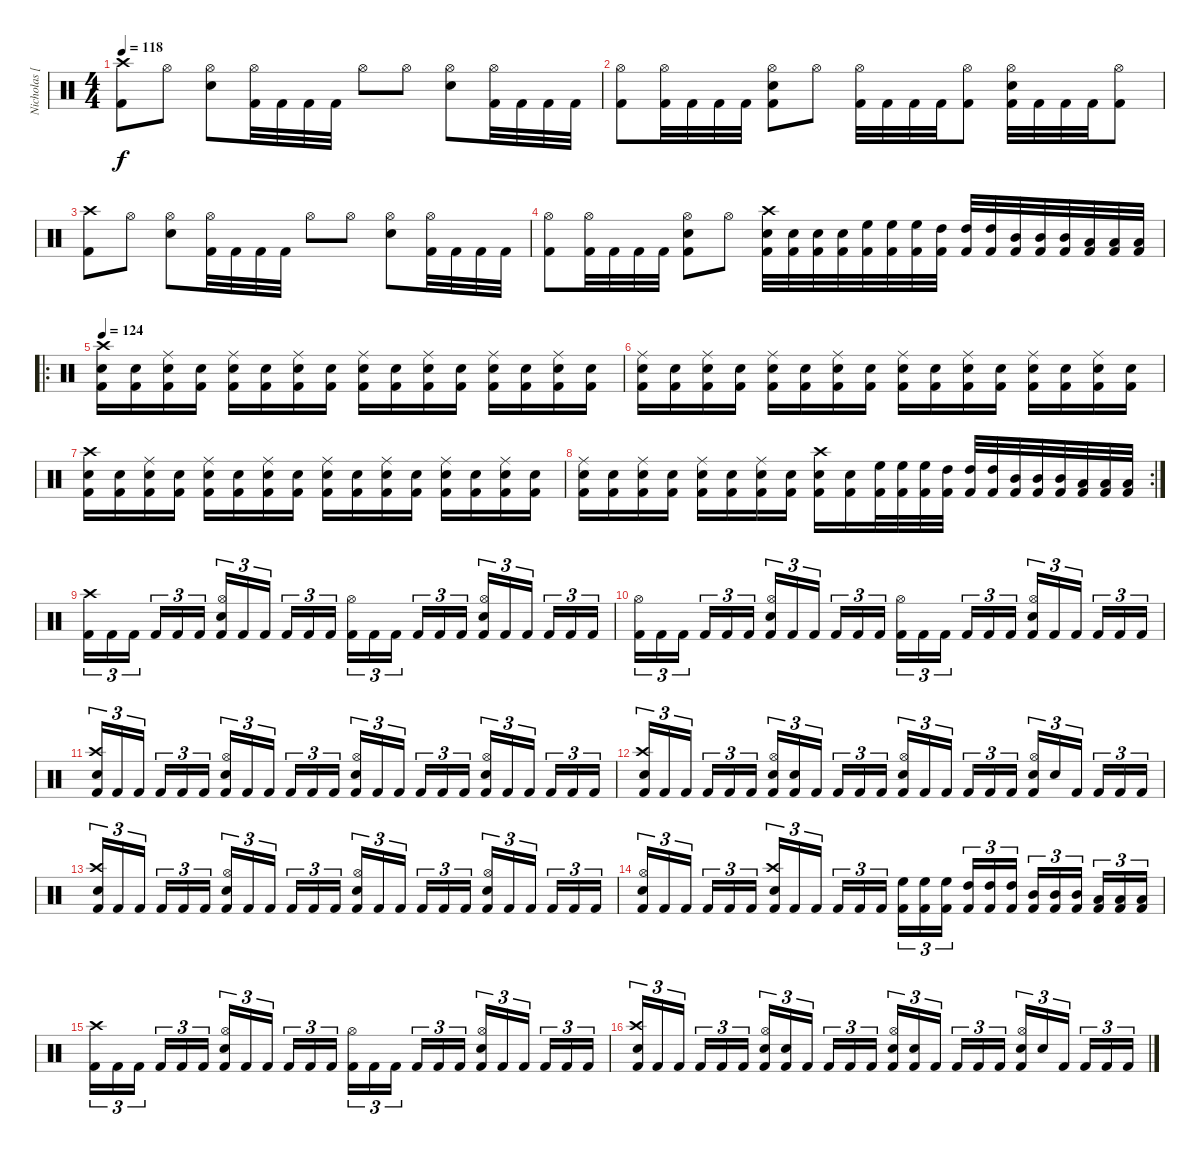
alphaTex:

\track ("Nicholas [Percussion]" "Nicholas [") {instrument percussion}
\staff {score}
\articulation defaults
\ts (4 4)
\tempo 118
\clef neutral
\ks c
("Kick (hit) 2" "Crash high (hit)").8{dy f} "Hi-Hat (open)".8 ("Snare (hit) 2" "Hi-Hat (open)").8 ("Kick (hit) 2" "Hi-Hat (open)").32 "Kick (hit) 2".32 "Kick (hit) 2".32 "Kick (hit) 2".32 "Hi-Hat (open)".8 "Hi-Hat (open)".8 ("Snare (hit) 2" "Hi-Hat (open)").8 ("Kick (hit) 2" "Hi-Hat (open)").32 "Kick (hit) 2".32 "Kick (hit) 2".32 "Kick (hit) 2".32 |
("Kick (hit) 2" "Hi-Hat (open)").8 ("Kick (hit) 2" "Hi-Hat (open)").32 "Kick (hit) 2".32 "Kick (hit) 2".32 "Kick (hit) 2".32 ("Kick (hit) 2" "Snare (hit) 2" "Hi-Hat (open)").8 "Hi-Hat (open)".8 ("Kick (hit) 2" "Hi-Hat (open)").32 "Kick (hit) 2".32 "Kick (hit) 2".32 "Kick (hit) 2".32 ("Kick (hit) 2" "Hi-Hat (open)").8 ("Kick (hit) 2" "Snare (hit) 2" "Hi-Hat (open)").32 "Kick (hit) 2".32 "Kick (hit) 2".32 "Kick (hit) 2".32 ("Kick (hit) 2" "Hi-Hat (open)").8 |
("Kick (hit) 2" "Crash high (hit)").8 "Hi-Hat (open)".8 ("Snare (hit) 2" "Hi-Hat (open)").8 ("Kick (hit) 2" "Hi-Hat (open)").32 "Kick (hit) 2".32 "Kick (hit) 2".32 "Kick (hit) 2".32 "Hi-Hat (open)".8 "Hi-Hat (open)".8 ("Snare (hit) 2" "Hi-Hat (open)").8 ("Kick (hit) 2" "Hi-Hat (open)").32 "Kick (hit) 2".32 "Kick (hit) 2".32 "Kick (hit) 2".32 |
("Kick (hit) 2" "Hi-Hat (open)").8 ("Kick (hit) 2" "Hi-Hat (open)").32 "Kick (hit) 2".32 "Kick (hit) 2".32 "Kick (hit) 2".32 ("Kick (hit) 2" "Snare (hit) 2" "Hi-Hat (open)").8 "Hi-Hat (open)".8 ("Kick (hit) 2" "Snare (hit) 2" "Crash high (hit)").32 ("Kick (hit) 2" "Snare (hit) 2").32 ("Kick (hit) 2" "Snare (hit) 2").32 ("Kick (hit) 2" "Snare (hit) 2").32 ("Kick (hit) 2" "High Floor Tom (hit)").32 ("Kick (hit) 2" "High Floor Tom (hit)").32 ("Kick (hit) 2" "High Floor Tom (hit)").32 ("Kick (hit) 2" "High Tom (hit)").32 ("Kick (hit) 2" "High Tom (hit)").32 ("Kick (hit) 2" "High Tom (hit)").32 ("Kick (hit) 2" "Mid Tom (hit)").32 ("Kick (hit) 2" "Mid Tom (hit)").32 ("Kick (hit) 2" "Mid Tom (hit)").32 ("Kick (hit) 2" "Low Tom (hit)").32 ("Kick (hit) 2" "Low Tom (hit)").32 ("Kick (hit) 2" "Low Tom (hit)").32 |
\ro
\tempo 124
("Kick (hit) 2" "Snare (hit) 2" "Crash high (hit)").16 ("Kick (hit) 2" "Snare (hit) 2").16 ("Kick (hit) 2" "Snare (hit) 2" "Ride (middle)").16 ("Kick (hit) 2" "Snare (hit) 2").16 ("Kick (hit) 2" "Snare (hit) 2" "Ride (middle)").16 ("Kick (hit) 2" "Snare (hit) 2").16 ("Kick (hit) 2" "Snare (hit) 2" "Ride (middle)").16 ("Kick (hit) 2" "Snare (hit) 2").16 ("Kick (hit) 2" "Snare (hit) 2" "Ride (middle)").16 ("Kick (hit) 2" "Snare (hit) 2").16 ("Kick (hit) 2" "Snare (hit) 2" "Ride (middle)").16 ("Kick (hit) 2" "Snare (hit) 2").16 ("Kick (hit) 2" "Snare (hit) 2" "Ride (middle)").16 ("Kick (hit) 2" "Snare (hit) 2").16 ("Kick (hit) 2" "Snare (hit) 2" "Ride (middle)").16 ("Kick (hit) 2" "Snare (hit) 2").16 |
("Kick (hit) 2" "Snare (hit) 2" "Ride (middle)").16 ("Kick (hit) 2" "Snare (hit) 2").16 ("Kick (hit) 2" "Snare (hit) 2" "Ride (middle)").16 ("Kick (hit) 2" "Snare (hit) 2").16 ("Kick (hit) 2" "Snare (hit) 2" "Ride (middle)").16 ("Kick (hit) 2" "Snare (hit) 2").16 ("Kick (hit) 2" "Snare (hit) 2" "Ride (middle)").16 ("Kick (hit) 2" "Snare (hit) 2").16 ("Kick (hit) 2" "Snare (hit) 2" "Ride (middle)").16 ("Kick (hit) 2" "Snare (hit) 2").16 ("Kick (hit) 2" "Snare (hit) 2" "Ride (middle)").16 ("Kick (hit) 2" "Snare (hit) 2").16 ("Kick (hit) 2" "Snare (hit) 2" "Ride (middle)").16 ("Kick (hit) 2" "Snare (hit) 2").16 ("Kick (hit) 2" "Snare (hit) 2" "Ride (middle)").16 ("Kick (hit) 2" "Snare (hit) 2").16 |
("Kick (hit) 2" "Snare (hit) 2" "Crash high (hit)").16 ("Kick (hit) 2" "Snare (hit) 2").16 ("Kick (hit) 2" "Snare (hit) 2" "Ride (middle)").16 ("Kick (hit) 2" "Snare (hit) 2").16 ("Kick (hit) 2" "Snare (hit) 2" "Ride (middle)").16 ("Kick (hit) 2" "Snare (hit) 2").16 ("Kick (hit) 2" "Snare (hit) 2" "Ride (middle)").16 ("Kick (hit) 2" "Snare (hit) 2").16 ("Kick (hit) 2" "Snare (hit) 2" "Ride (middle)").16 ("Kick (hit) 2" "Snare (hit) 2").16 ("Kick (hit) 2" "Snare (hit) 2" "Ride (middle)").16 ("Kick (hit) 2" "Snare (hit) 2").16 ("Kick (hit) 2" "Snare (hit) 2" "Ride (middle)").16 ("Kick (hit) 2" "Snare (hit) 2").16 ("Kick (hit) 2" "Snare (hit) 2" "Ride (middle)").16 ("Kick (hit) 2" "Snare (hit) 2").16 |
\rc 2
("Kick (hit) 2" "Snare (hit) 2" "Ride (middle)").16 ("Kick (hit) 2" "Snare (hit) 2").16 ("Kick (hit) 2" "Snare (hit) 2" "Ride (middle)").16 ("Kick (hit) 2" "Snare (hit) 2").16 ("Kick (hit) 2" "Snare (hit) 2" "Ride (middle)").16 ("Kick (hit) 2" "Snare (hit) 2").16 ("Kick (hit) 2" "Snare (hit) 2" "Ride (middle)").16 ("Kick (hit) 2" "Snare (hit) 2").16 ("Kick (hit) 2" "Snare (hit) 2" "Crash high (hit)").16 ("Kick (hit) 2" "Snare (hit) 2").16 ("Kick (hit) 2" "High Floor Tom (hit)").32 ("Kick (hit) 2" "High Floor Tom (hit)").32 ("Kick (hit) 2" "High Floor Tom (hit)").32 ("Kick (hit) 2" "High Tom (hit)").32 ("Kick (hit) 2" "High Tom (hit)").32 ("Kick (hit) 2" "High Tom (hit)").32 ("Kick (hit) 2" "Mid Tom (hit)").32 ("Kick (hit) 2" "Mid Tom (hit)").32 ("Kick (hit) 2" "Mid Tom (hit)").32 ("Kick (hit) 2" "Low Tom (hit)").32 ("Kick (hit) 2" "Low Tom (hit)").32 ("Kick (hit) 2" "Low Tom (hit)").32 |
("Kick (hit) 2" "Crash high (hit)").16{tu (3 2)} "Kick (hit) 2".16{tu (3 2)} "Kick (hit) 2".16{tu (3 2)} "Kick (hit) 2".16{tu (3 2)} "Kick (hit) 2".16{tu (3 2)} "Kick (hit) 2".16{tu (3 2)} ("Kick (hit) 2" "Snare (hit) 2" "Hi-Hat (open)").16{tu (3 2)} "Kick (hit) 2".16{tu (3 2)} "Kick (hit) 2".16{tu (3 2)} "Kick (hit) 2".16{tu (3 2)} "Kick (hit) 2".16{tu (3 2)} "Kick (hit) 2".16{tu (3 2)} ("Kick (hit) 2" "Hi-Hat (open)").16{tu (3 2)} "Kick (hit) 2".16{tu (3 2)} "Kick (hit) 2".16{tu (3 2)} "Kick (hit) 2".16{tu (3 2)} "Kick (hit) 2".16{tu (3 2)} "Kick (hit) 2".16{tu (3 2)} ("Kick (hit) 2" "Snare (hit) 2" "Hi-Hat (open)").16{tu (3 2)} "Kick (hit) 2".16{tu (3 2)} "Kick (hit) 2".16{tu (3 2)} "Kick (hit) 2".16{tu (3 2)} "Kick (hit) 2".16{tu (3 2)} "Kick (hit) 2".16{tu (3 2)} |
("Kick (hit) 2" "Hi-Hat (open)").16{tu (3 2)} "Kick (hit) 2".16{tu (3 2)} "Kick (hit) 2".16{tu (3 2)} "Kick (hit) 2".16{tu (3 2)} "Kick (hit) 2".16{tu (3 2)} "Kick (hit) 2".16{tu (3 2)} ("Kick (hit) 2" "Snare (hit) 2" "Hi-Hat (open)").16{tu (3 2)} "Kick (hit) 2".16{tu (3 2)} "Kick (hit) 2".16{tu (3 2)} "Kick (hit) 2".16{tu (3 2)} "Kick (hit) 2".16{tu (3 2)} "Kick (hit) 2".16{tu (3 2)} ("Kick (hit) 2" "Hi-Hat (open)").16{tu (3 2)} "Kick (hit) 2".16{tu (3 2)} "Kick (hit) 2".16{tu (3 2)} "Kick (hit) 2".16{tu (3 2)} "Kick (hit) 2".16{tu (3 2)} "Kick (hit) 2".16{tu (3 2)} ("Kick (hit) 2" "Snare (hit) 2" "Hi-Hat (open)").16{tu (3 2)} "Kick (hit) 2".16{tu (3 2)} "Kick (hit) 2".16{tu (3 2)} "Kick (hit) 2".16{tu (3 2)} "Kick (hit) 2".16{tu (3 2)} "Kick (hit) 2".16{tu (3 2)} |
("Kick (hit) 2" "Snare (hit) 2" "Crash high (hit)").16{tu (3 2)} "Kick (hit) 2".16{tu (3 2)} "Kick (hit) 2".16{tu (3 2)} "Kick (hit) 2".16{tu (3 2)} "Kick (hit) 2".16{tu (3 2)} "Kick (hit) 2".16{tu (3 2)} ("Kick (hit) 2" "Snare (hit) 2" "Hi-Hat (open)").16{tu (3 2)} "Kick (hit) 2".16{tu (3 2)} "Kick (hit) 2".16{tu (3 2)} "Kick (hit) 2".16{tu (3 2)} "Kick (hit) 2".16{tu (3 2)} "Kick (hit) 2".16{tu (3 2)} ("Kick (hit) 2" "Snare (hit) 2" "Hi-Hat (open)").16{tu (3 2)} "Kick (hit) 2".16{tu (3 2)} "Kick (hit) 2".16{tu (3 2)} "Kick (hit) 2".16{tu (3 2)} "Kick (hit) 2".16{tu (3 2)} "Kick (hit) 2".16{tu (3 2)} ("Kick (hit) 2" "Snare (hit) 2" "Hi-Hat (open)").16{tu (3 2)} "Kick (hit) 2".16{tu (3 2)} "Kick (hit) 2".16{tu (3 2)} "Kick (hit) 2".16{tu (3 2)} "Kick (hit) 2".16{tu (3 2)} "Kick (hit) 2".16{tu (3 2)} |
("Kick (hit) 2" "Snare (hit) 2" "Crash high (hit)").16{tu (3 2)} "Kick (hit) 2".16{tu (3 2)} "Kick (hit) 2".16{tu (3 2)} "Kick (hit) 2".16{tu (3 2)} "Kick (hit) 2".16{tu (3 2)} "Kick (hit) 2".16{tu (3 2)} ("Kick (hit) 2" "Snare (hit) 2" "Hi-Hat (open)").16{tu (3 2)} ("Kick (hit) 2" "Snare (hit) 2").16{tu (3 2)} "Kick (hit) 2".16{tu (3 2)} "Kick (hit) 2".16{tu (3 2)} "Kick (hit) 2".16{tu (3 2)} "Kick (hit) 2".16{tu (3 2)} ("Kick (hit) 2" "Snare (hit) 2" "Hi-Hat (open)").16{tu (3 2)} "Kick (hit) 2".16{tu (3 2)} "Kick (hit) 2".16{tu (3 2)} "Kick (hit) 2".16{tu (3 2)} "Kick (hit) 2".16{tu (3 2)} "Kick (hit) 2".16{tu (3 2)} ("Kick (hit) 2" "Snare (hit) 2" "Hi-Hat (open)").16{tu (3 2)} "Snare (hit) 2".16{tu (3 2)} "Kick (hit) 2".16{tu (3 2)} "Kick (hit) 2".16{tu (3 2)} "Kick (hit) 2".16{tu (3 2)} "Kick (hit) 2".16{tu (3 2)} |
("Kick (hit) 2" "Snare (hit) 2" "Crash high (hit)").16{tu (3 2)} "Kick (hit) 2".16{tu (3 2)} "Kick (hit) 2".16{tu (3 2)} "Kick (hit) 2".16{tu (3 2)} "Kick (hit) 2".16{tu (3 2)} "Kick (hit) 2".16{tu (3 2)} ("Kick (hit) 2" "Snare (hit) 2" "Hi-Hat (open)").16{tu (3 2)} "Kick (hit) 2".16{tu (3 2)} "Kick (hit) 2".16{tu (3 2)} "Kick (hit) 2".16{tu (3 2)} "Kick (hit) 2".16{tu (3 2)} "Kick (hit) 2".16{tu (3 2)} ("Kick (hit) 2" "Snare (hit) 2" "Hi-Hat (open)").16{tu (3 2)} "Kick (hit) 2".16{tu (3 2)} "Kick (hit) 2".16{tu (3 2)} "Kick (hit) 2".16{tu (3 2)} "Kick (hit) 2".16{tu (3 2)} "Kick (hit) 2".16{tu (3 2)} ("Kick (hit) 2" "Snare (hit) 2" "Hi-Hat (open)").16{tu (3 2)} "Kick (hit) 2".16{tu (3 2)} "Kick (hit) 2".16{tu (3 2)} "Kick (hit) 2".16{tu (3 2)} "Kick (hit) 2".16{tu (3 2)} "Kick (hit) 2".16{tu (3 2)} |
("Kick (hit) 2" "Snare (hit) 2" "Hi-Hat (open)").16{tu (3 2)} "Kick (hit) 2".16{tu (3 2)} "Kick (hit) 2".16{tu (3 2)} "Kick (hit) 2".16{tu (3 2)} "Kick (hit) 2".16{tu (3 2)} "Kick (hit) 2".16{tu (3 2)} ("Kick (hit) 2" "Snare (hit) 2" "Crash high (hit)").16{tu (3 2)} "Kick (hit) 2".16{tu (3 2)} "Kick (hit) 2".16{tu (3 2)} "Kick (hit) 2".16{tu (3 2)} "Kick (hit) 2".16{tu (3 2)} "Kick (hit) 2".16{tu (3 2)} ("Kick (hit) 2" "High Floor Tom (hit)").16{tu (3 2)} ("Kick (hit) 2" "High Floor Tom (hit)").16{tu (3 2)} ("Kick (hit) 2" "High Floor Tom (hit)").16{tu (3 2)} ("Kick (hit) 2" "High Tom (hit)").16{tu (3 2)} ("Kick (hit) 2" "High Tom (hit)").16{tu (3 2)} ("Kick (hit) 2" "High Tom (hit)").16{tu (3 2)} ("Kick (hit) 2" "Mid Tom (hit)").16{tu (3 2)} ("Kick (hit) 2" "Mid Tom (hit)").16{tu (3 2)} ("Kick (hit) 2" "Mid Tom (hit)").16{tu (3 2)} ("Kick (hit) 2" "Low Tom (hit)").16{tu (3 2)} ("Kick (hit) 2" "Low Tom (hit)").16{tu (3 2)} ("Kick (hit) 2" "Low Tom (hit)").16{tu (3 2)} |
("Kick (hit) 2" "Crash high (hit)").16{tu (3 2)} "Kick (hit) 2".16{tu (3 2)} "Kick (hit) 2".16{tu (3 2)} "Kick (hit) 2".16{tu (3 2)} "Kick (hit) 2".16{tu (3 2)} "Kick (hit) 2".16{tu (3 2)} ("Kick (hit) 2" "Snare (hit) 2" "Hi-Hat (open)").16{tu (3 2)} "Kick (hit) 2".16{tu (3 2)} "Kick (hit) 2".16{tu (3 2)} "Kick (hit) 2".16{tu (3 2)} "Kick (hit) 2".16{tu (3 2)} "Kick (hit) 2".16{tu (3 2)} ("Kick (hit) 2" "Hi-Hat (open)").16{tu (3 2)} "Kick (hit) 2".16{tu (3 2)} "Kick (hit) 2".16{tu (3 2)} "Kick (hit) 2".16{tu (3 2)} "Kick (hit) 2".16{tu (3 2)} "Kick (hit) 2".16{tu (3 2)} ("Kick (hit) 2" "Snare (hit) 2" "Hi-Hat (open)").16{tu (3 2)} "Kick (hit) 2".16{tu (3 2)} "Kick (hit) 2".16{tu (3 2)} "Kick (hit) 2".16{tu (3 2)} "Kick (hit) 2".16{tu (3 2)} "Kick (hit) 2".16{tu (3 2)} |
("Kick (hit) 2" "Snare (hit) 2" "Crash high (hit)").16{tu (3 2)} "Kick (hit) 2".16{tu (3 2)} "Kick (hit) 2".16{tu (3 2)} "Kick (hit) 2".16{tu (3 2)} "Kick (hit) 2".16{tu (3 2)} "Kick (hit) 2".16{tu (3 2)} ("Kick (hit) 2" "Snare (hit) 2" "Hi-Hat (open)").16{tu (3 2)} ("Kick (hit) 2" "Snare (hit) 2").16{tu (3 2)} "Kick (hit) 2".16{tu (3 2)} "Kick (hit) 2".16{tu (3 2)} "Kick (hit) 2".16{tu (3 2)} "Kick (hit) 2".16{tu (3 2)} ("Kick (hit) 2" "Snare (hit) 2" "Hi-Hat (open)").16{tu (3 2)} ("Kick (hit) 2" "Snare (hit) 2").16{tu (3 2)} "Kick (hit) 2".16{tu (3 2)} "Kick (hit) 2".16{tu (3 2)} "Kick (hit) 2".16{tu (3 2)} "Kick (hit) 2".16{tu (3 2)} ("Kick (hit) 2" "Snare (hit) 2" "Hi-Hat (open)").16{tu (3 2)} "Snare (hit) 2".16{tu (3 2)} "Kick (hit) 2".16{tu (3 2)} "Kick (hit) 2".16{tu (3 2)} "Kick (hit) 2".16{tu (3 2)} "Kick (hit) 2".16{tu (3 2)}
